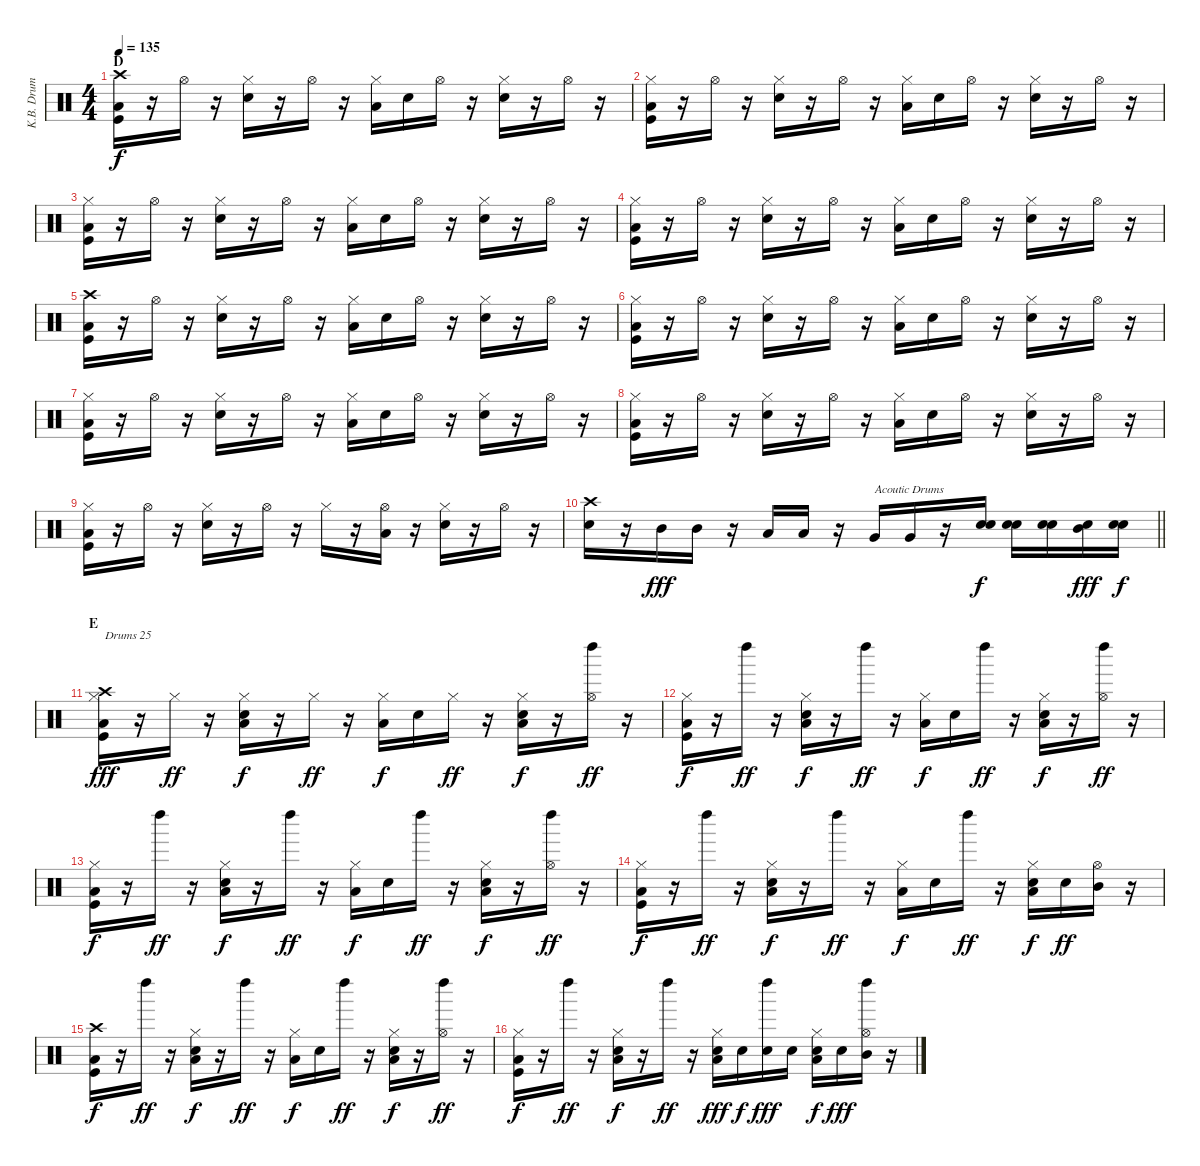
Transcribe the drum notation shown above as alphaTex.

\track ("K.B. Drum" "K.B. Drum") {instrument percussion}
\staff {score}
\articulation defaults
\ts (4 4)
\section ("" "D")
\tempo 135
\clef neutral
\ks c
("Crash high (hit)" "Low Tom (hit)" "Kick (hit)").16{dy f} r.16 "Hi-Hat (open)".16 r.16 ("Hi-Hat (closed)" "Electric Snare (hit)").16 r.16 "Hi-Hat (open)".16 r.16 ("Hi-Hat (closed)" "Low Tom (hit)").16 "Electric Snare (hit)".16 "Hi-Hat (open)".16 r.16 ("Hi-Hat (closed)" "Electric Snare (hit)").16 r.16 "Hi-Hat (open)".16 r.16 |
("Hi-Hat (closed)" "Low Tom (hit)" "Kick (hit)").16 r.16 "Hi-Hat (open)".16 r.16 ("Hi-Hat (closed)" "Electric Snare (hit)").16 r.16 "Hi-Hat (open)".16 r.16 ("Hi-Hat (closed)" "Low Tom (hit)").16 "Electric Snare (hit)".16 "Hi-Hat (open)".16 r.16 ("Hi-Hat (closed)" "Electric Snare (hit)").16 r.16 "Hi-Hat (open)".16 r.16 |
("Hi-Hat (closed)" "Low Tom (hit)" "Kick (hit)").16 r.16 "Hi-Hat (open)".16 r.16 ("Hi-Hat (closed)" "Electric Snare (hit)").16 r.16 "Hi-Hat (open)".16 r.16 ("Hi-Hat (closed)" "Low Tom (hit)").16 "Electric Snare (hit)".16 "Hi-Hat (open)".16 r.16 ("Hi-Hat (closed)" "Electric Snare (hit)").16 r.16 "Hi-Hat (open)".16 r.16 |
("Hi-Hat (closed)" "Low Tom (hit)" "Kick (hit)").16 r.16 "Hi-Hat (open)".16 r.16 ("Hi-Hat (closed)" "Electric Snare (hit)").16 r.16 "Hi-Hat (open)".16 r.16 ("Hi-Hat (closed)" "Low Tom (hit)").16 "Electric Snare (hit)".16 "Hi-Hat (open)".16 r.16 ("Hi-Hat (closed)" "Electric Snare (hit)").16 r.16 "Hi-Hat (open)".16 r.16 |
("Crash high (hit)" "Low Tom (hit)" "Kick (hit)").16 r.16 "Hi-Hat (open)".16 r.16 ("Hi-Hat (closed)" "Electric Snare (hit)").16 r.16 "Hi-Hat (open)".16 r.16 ("Hi-Hat (closed)" "Low Tom (hit)").16 "Electric Snare (hit)".16 "Hi-Hat (open)".16 r.16 ("Hi-Hat (closed)" "Electric Snare (hit)").16 r.16 "Hi-Hat (open)".16 r.16 |
("Hi-Hat (closed)" "Low Tom (hit)" "Kick (hit)").16 r.16 "Hi-Hat (open)".16 r.16 ("Hi-Hat (closed)" "Electric Snare (hit)").16 r.16 "Hi-Hat (open)".16 r.16 ("Hi-Hat (closed)" "Low Tom (hit)").16 "Electric Snare (hit)".16 "Hi-Hat (open)".16 r.16 ("Hi-Hat (closed)" "Electric Snare (hit)").16 r.16 "Hi-Hat (open)".16 r.16 |
("Hi-Hat (closed)" "Low Tom (hit)" "Kick (hit)").16 r.16 "Hi-Hat (open)".16 r.16 ("Hi-Hat (closed)" "Electric Snare (hit)").16 r.16 "Hi-Hat (open)".16 r.16 ("Hi-Hat (closed)" "Low Tom (hit)").16 "Electric Snare (hit)".16 "Hi-Hat (open)".16 r.16 ("Hi-Hat (closed)" "Electric Snare (hit)").16 r.16 "Hi-Hat (open)".16 r.16 |
("Hi-Hat (closed)" "Low Tom (hit)" "Kick (hit)").16 r.16 "Hi-Hat (open)".16 r.16 ("Hi-Hat (closed)" "Electric Snare (hit)").16 r.16 "Hi-Hat (open)".16 r.16 ("Hi-Hat (closed)" "Low Tom (hit)").16 "Electric Snare (hit)".16 "Hi-Hat (open)".16 r.16 ("Hi-Hat (closed)" "Electric Snare (hit)").16 r.16 "Hi-Hat (open)".16 r.16 |
("Hi-Hat (closed)" "Low Tom (hit)" "Kick (hit)").16 r.16 "Hi-Hat (open)".16 r.16 ("Hi-Hat (closed)" "Electric Snare (hit)").16 r.16 "Hi-Hat (open)".16 r.16 "Hi-Hat (closed)".16 r.16 ("Hi-Hat (open)" "Low Tom (hit)").16 r.16 ("Hi-Hat (closed)" "Electric Snare (hit)").16 r.16 "Hi-Hat (open)".16 r.16 |
\barLineRight lightlight
("Crash high (hit)" "Electric Snare (hit)").16 r.16 "Mid Tom (hit)".16{dy fff} "Mid Tom (hit)".16 r.16 "Low Tom (hit)".16 "Low Tom (hit)".16 r.16 "Very Low Tom (hit)".16{txt "Acoutic Drums"} "Very Low Tom (hit)".16 r.16 ("Electric Snare (hit)" "Snare (hit) 2").16{dy f} ("Electric Snare (hit)" "Snare (hit) 2").16 ("Electric Snare (hit)" "Snare (hit) 2").16 ("Mid Tom (hit)" "Snare (hit) 2").16{dy fff} ("Snare (hit) 2" "Snare (hit) 2").16{dy f} |
\section ("" "E")
("Crash high (hit)" "Hi-Hat (closed)" "Low Tom (hit)" "Kick (hit)").16{txt "Drums 25" dy fff} r.16 "Hi-Hat (closed)".16{dy ff} r.16 ("Hi-Hat (closed)" "Electric Snare (hit)" "Low Tom (hit)").16{dy f} r.16 "Hi-Hat (closed)".16{dy ff} r.16 ("Hi-Hat (closed)" "Low Tom (hit)").16{dy f} "Electric Snare (hit)".16 "Hi-Hat (closed)".16{dy ff} r.16 ("Hi-Hat (closed)" "Electric Snare (hit)" "Low Tom (hit)").16{dy f} r.16 ("Hi-Hat (open)" "Left Maraca (hit)").16{dy ff} r.16 |
("Hi-Hat (closed)" "Low Tom (hit)" "Kick (hit)").16{dy f} r.16 "Left Maraca (hit)".16{dy ff} r.16 ("Hi-Hat (closed)" "Electric Snare (hit)" "Low Tom (hit)").16{dy f} r.16 "Left Maraca (hit)".16{dy ff} r.16 ("Hi-Hat (closed)" "Low Tom (hit)").16{dy f} "Electric Snare (hit)".16 "Left Maraca (hit)".16{dy ff} r.16 ("Hi-Hat (closed)" "Electric Snare (hit)" "Low Tom (hit)").16{dy f} r.16 ("Hi-Hat (open)" "Left Maraca (hit)").16{dy ff} r.16 |
("Hi-Hat (closed)" "Low Tom (hit)" "Kick (hit)").16{dy f} r.16 "Left Maraca (hit)".16{dy ff} r.16 ("Hi-Hat (closed)" "Electric Snare (hit)" "Low Tom (hit)").16{dy f} r.16 "Left Maraca (hit)".16{dy ff} r.16 ("Hi-Hat (closed)" "Low Tom (hit)").16{dy f} "Electric Snare (hit)".16 "Left Maraca (hit)".16{dy ff} r.16 ("Hi-Hat (closed)" "Electric Snare (hit)" "Low Tom (hit)").16{dy f} r.16 ("Hi-Hat (open)" "Left Maraca (hit)").16{dy ff} r.16 |
("Hi-Hat (closed)" "Low Tom (hit)" "Kick (hit)").16{dy f} r.16 "Left Maraca (hit)".16{dy ff} r.16 ("Hi-Hat (closed)" "Electric Snare (hit)" "Low Tom (hit)").16{dy f} r.16 "Left Maraca (hit)".16{dy ff} r.16 ("Hi-Hat (closed)" "Low Tom (hit)").16{dy f} "Electric Snare (hit)".16 "Left Maraca (hit)".16{dy ff} r.16 ("Hi-Hat (closed)" "Electric Snare (hit)" "Low Tom (hit)").16{dy f} "Electric Snare (hit)".16{dy ff} ("Hi-Hat (open)" "Mid Tom (hit)").16 r.16 |
("Crash high (hit)" "Low Tom (hit)" "Kick (hit)").16{dy f} r.16 "Left Maraca (hit)".16{dy ff} r.16 ("Hi-Hat (closed)" "Electric Snare (hit)" "Low Tom (hit)").16{dy f} r.16 "Left Maraca (hit)".16{dy ff} r.16 ("Hi-Hat (closed)" "Low Tom (hit)").16{dy f} "Electric Snare (hit)".16 "Left Maraca (hit)".16{dy ff} r.16 ("Hi-Hat (closed)" "Electric Snare (hit)" "Low Tom (hit)").16{dy f} r.16 ("Hi-Hat (open)" "Left Maraca (hit)").16{dy ff} r.16 |
("Hi-Hat (closed)" "Low Tom (hit)" "Kick (hit)").16{dy f} r.16 "Left Maraca (hit)".16{dy ff} r.16 ("Hi-Hat (closed)" "Electric Snare (hit)" "Low Tom (hit)").16{dy f} r.16 "Left Maraca (hit)".16{dy ff} r.16 ("Hi-Hat (closed)" "Electric Snare (hit)" "Low Tom (hit)").16{dy fff} "Electric Snare (hit)".16{dy f} ("Left Maraca (hit)" "Electric Snare (hit)").16{dy fff} "Electric Snare (hit)".16 ("Hi-Hat (closed)" "Electric Snare (hit)" "Low Tom (hit)").16{dy f} "Electric Snare (hit)".16{dy fff} ("Hi-Hat (open)" "Left Maraca (hit)" "Mid Tom (hit)").16 r.16
